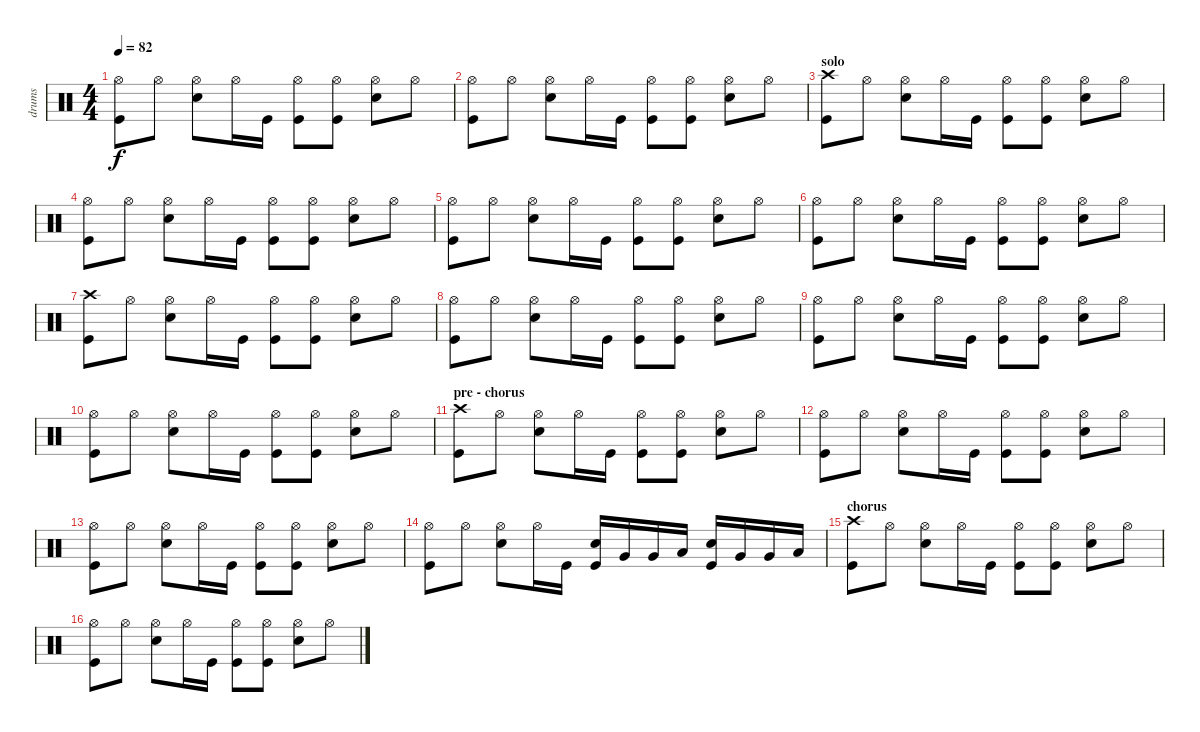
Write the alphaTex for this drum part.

\track ("drums" "drums") {instrument percussion}
\staff {score}
\articulation defaults
\ts (4 4)
\tempo 82
\clef neutral
\ks c
("Hi-Hat (open)" "Kick (hit)").8{dy f} "Hi-Hat (open)".8 ("Hi-Hat (open)" "Snare (hit) 2").8 "Hi-Hat (open)".16 "Kick (hit)".16 ("Hi-Hat (open)" "Kick (hit)").8 ("Hi-Hat (open)" "Kick (hit)").8 ("Hi-Hat (open)" "Snare (hit) 2").8 "Hi-Hat (open)".8 |
("Hi-Hat (open)" "Kick (hit)").8 "Hi-Hat (open)".8 ("Hi-Hat (open)" "Snare (hit) 2").8 "Hi-Hat (open)".16 "Kick (hit)".16 ("Hi-Hat (open)" "Kick (hit)").8 ("Hi-Hat (open)" "Kick (hit)").8 ("Hi-Hat (open)" "Snare (hit) 2").8 "Hi-Hat (open)".8 |
\section ("" "solo")
("Crash high (hit)" "Kick (hit)").8 "Hi-Hat (open)".8 ("Hi-Hat (open)" "Snare (hit) 2").8 "Hi-Hat (open)".16 "Kick (hit)".16 ("Hi-Hat (open)" "Kick (hit)").8 ("Hi-Hat (open)" "Kick (hit)").8 ("Hi-Hat (open)" "Snare (hit) 2").8 "Hi-Hat (open)".8 |
("Hi-Hat (open)" "Kick (hit)").8 "Hi-Hat (open)".8 ("Hi-Hat (open)" "Snare (hit) 2").8 "Hi-Hat (open)".16 "Kick (hit)".16 ("Hi-Hat (open)" "Kick (hit)").8 ("Hi-Hat (open)" "Kick (hit)").8 ("Hi-Hat (open)" "Snare (hit) 2").8 "Hi-Hat (open)".8 |
("Hi-Hat (open)" "Kick (hit)").8 "Hi-Hat (open)".8 ("Hi-Hat (open)" "Snare (hit) 2").8 "Hi-Hat (open)".16 "Kick (hit)".16 ("Hi-Hat (open)" "Kick (hit)").8 ("Hi-Hat (open)" "Kick (hit)").8 ("Hi-Hat (open)" "Snare (hit) 2").8 "Hi-Hat (open)".8 |
("Hi-Hat (open)" "Kick (hit)").8 "Hi-Hat (open)".8 ("Hi-Hat (open)" "Snare (hit) 2").8 "Hi-Hat (open)".16 "Kick (hit)".16 ("Hi-Hat (open)" "Kick (hit)").8 ("Hi-Hat (open)" "Kick (hit)").8 ("Hi-Hat (open)" "Snare (hit) 2").8 "Hi-Hat (open)".8 |
("Crash high (hit)" "Kick (hit)").8 "Hi-Hat (open)".8 ("Hi-Hat (open)" "Snare (hit) 2").8 "Hi-Hat (open)".16 "Kick (hit)".16 ("Hi-Hat (open)" "Kick (hit)").8 ("Hi-Hat (open)" "Kick (hit)").8 ("Hi-Hat (open)" "Snare (hit) 2").8 "Hi-Hat (open)".8 |
("Hi-Hat (open)" "Kick (hit)").8 "Hi-Hat (open)".8 ("Hi-Hat (open)" "Snare (hit) 2").8 "Hi-Hat (open)".16 "Kick (hit)".16 ("Hi-Hat (open)" "Kick (hit)").8 ("Hi-Hat (open)" "Kick (hit)").8 ("Hi-Hat (open)" "Snare (hit) 2").8 "Hi-Hat (open)".8 |
("Hi-Hat (open)" "Kick (hit)").8 "Hi-Hat (open)".8 ("Hi-Hat (open)" "Snare (hit) 2").8 "Hi-Hat (open)".16 "Kick (hit)".16 ("Hi-Hat (open)" "Kick (hit)").8 ("Hi-Hat (open)" "Kick (hit)").8 ("Hi-Hat (open)" "Snare (hit) 2").8 "Hi-Hat (open)".8 |
("Hi-Hat (open)" "Kick (hit)").8 "Hi-Hat (open)".8 ("Hi-Hat (open)" "Snare (hit) 2").8 "Hi-Hat (open)".16 "Kick (hit)".16 ("Hi-Hat (open)" "Kick (hit)").8 ("Hi-Hat (open)" "Kick (hit)").8 ("Hi-Hat (open)" "Snare (hit) 2").8 "Hi-Hat (open)".8 |
\section ("" "pre - chorus")
("Crash high (hit)" "Kick (hit)").8 "Hi-Hat (open)".8 ("Hi-Hat (open)" "Snare (hit) 2").8 "Hi-Hat (open)".16 "Kick (hit)".16 ("Hi-Hat (open)" "Kick (hit)").8 ("Hi-Hat (open)" "Kick (hit)").8 ("Hi-Hat (open)" "Snare (hit) 2").8 "Hi-Hat (open)".8 |
("Hi-Hat (open)" "Kick (hit)").8 "Hi-Hat (open)".8 ("Hi-Hat (open)" "Snare (hit) 2").8 "Hi-Hat (open)".16 "Kick (hit)".16 ("Hi-Hat (open)" "Kick (hit)").8 ("Hi-Hat (open)" "Kick (hit)").8 ("Hi-Hat (open)" "Snare (hit) 2").8 "Hi-Hat (open)".8 |
("Hi-Hat (open)" "Kick (hit)").8 "Hi-Hat (open)".8 ("Hi-Hat (open)" "Snare (hit) 2").8 "Hi-Hat (open)".16 "Kick (hit)".16 ("Hi-Hat (open)" "Kick (hit)").8 ("Hi-Hat (open)" "Kick (hit)").8 ("Hi-Hat (open)" "Snare (hit) 2").8 "Hi-Hat (open)".8 |
("Hi-Hat (open)" "Kick (hit)").8 "Hi-Hat (open)".8 ("Hi-Hat (open)" "Snare (hit) 2").8 "Hi-Hat (open)".16 "Kick (hit)".16 ("Snare (hit) 2" "Kick (hit)").16 "Very Low Tom (hit)".16 "Very Low Tom (hit)".16 "Low Floor Tom (hit)".16 ("Snare (hit) 2" "Kick (hit)").16 "Very Low Tom (hit)".16 "Very Low Tom (hit)".16 "Low Floor Tom (hit)".16 |
\section ("" "chorus")
("Crash high (hit)" "Kick (hit)").8 "Hi-Hat (open)".8 ("Hi-Hat (open)" "Snare (hit) 2").8 "Hi-Hat (open)".16 "Kick (hit)".16 ("Hi-Hat (open)" "Kick (hit)").8 ("Hi-Hat (open)" "Kick (hit)").8 ("Hi-Hat (open)" "Snare (hit) 2").8 "Hi-Hat (open)".8 |
("Hi-Hat (open)" "Kick (hit)").8 "Hi-Hat (open)".8 ("Hi-Hat (open)" "Snare (hit) 2").8 "Hi-Hat (open)".16 "Kick (hit)".16 ("Hi-Hat (open)" "Kick (hit)").8 ("Hi-Hat (open)" "Kick (hit)").8 ("Hi-Hat (open)" "Snare (hit) 2").8 "Hi-Hat (open)".8
